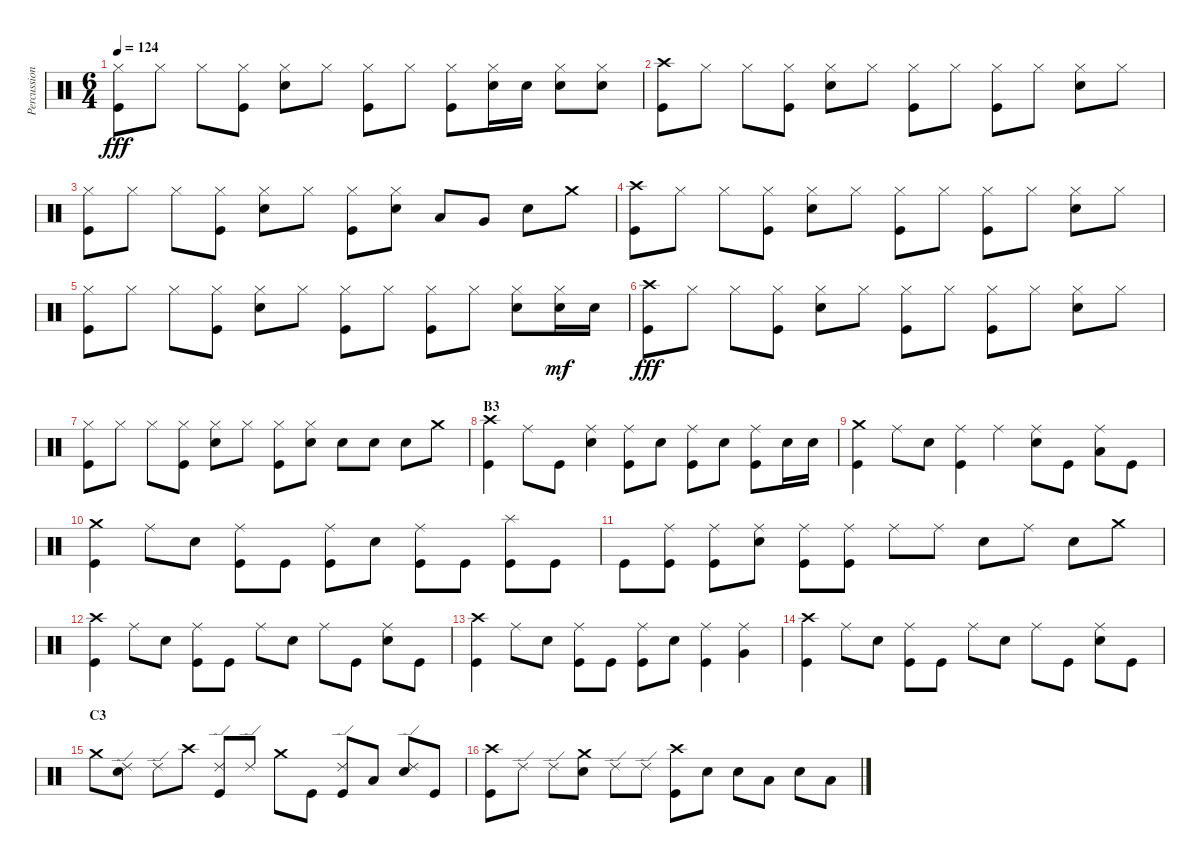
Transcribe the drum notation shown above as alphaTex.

\track ("Percussion" "Percussion") {instrument percussion}
\staff {score}
\articulation defaults
\ts (6 4)
\tempo 124
\clef neutral
\ks c
("Hi-Hat (closed)" "Kick (hit)").8{dy fff} "Hi-Hat (closed)".8 "Hi-Hat (closed)".8 ("Hi-Hat (closed)" "Kick (hit)").8 ("Hi-Hat (closed)" "Snare (hit) 2").8 "Hi-Hat (closed)".8 ("Hi-Hat (closed)" "Kick (hit)").8 "Hi-Hat (closed)".8 ("Hi-Hat (closed)" "Kick (hit)").8 ("Hi-Hat (closed)" "Snare (hit) 2").16 "Snare (hit) 2".16 ("Hi-Hat (closed)" "Snare (hit) 2").8 ("Hi-Hat (closed)" "Snare (hit) 2").8 |
("Crash high (hit)" "Kick (hit)").8 "Hi-Hat (closed)".8 "Hi-Hat (closed)".8 ("Hi-Hat (closed)" "Kick (hit)").8 ("Hi-Hat (closed)" "Snare (hit) 2").8 "Hi-Hat (closed)".8 ("Hi-Hat (closed)" "Kick (hit)").8 "Hi-Hat (closed)".8 ("Hi-Hat (closed)" "Kick (hit)").8 "Hi-Hat (closed)".8 ("Hi-Hat (closed)" "Snare (hit) 2").8 "Hi-Hat (closed)".8 |
("Hi-Hat (closed)" "Kick (hit)").8 "Hi-Hat (closed)".8 "Hi-Hat (closed)".8 ("Hi-Hat (closed)" "Kick (hit)").8 ("Hi-Hat (closed)" "Snare (hit) 2").8 "Hi-Hat (closed)".8 ("Hi-Hat (closed)" "Kick (hit)").8 ("Hi-Hat (closed)" "Snare (hit) 2").8 "Low Tom (hit)".8 "Very Low Tom (hit)".8 "Snare (hit) 2".8 "Crash medium (hit)".8 |
("Crash high (hit)" "Kick (hit)").8 "Hi-Hat (closed)".8 "Hi-Hat (closed)".8 ("Hi-Hat (closed)" "Kick (hit)").8 ("Hi-Hat (closed)" "Snare (hit) 2").8 "Hi-Hat (closed)".8 ("Hi-Hat (closed)" "Kick (hit)").8 "Hi-Hat (closed)".8 ("Hi-Hat (closed)" "Kick (hit)").8 "Hi-Hat (closed)".8 ("Hi-Hat (closed)" "Snare (hit) 2").8 "Hi-Hat (closed)".8 |
("Hi-Hat (closed)" "Kick (hit)").8 "Hi-Hat (closed)".8 "Hi-Hat (closed)".8 ("Hi-Hat (closed)" "Kick (hit)").8 ("Hi-Hat (closed)" "Snare (hit) 2").8 "Hi-Hat (closed)".8 ("Hi-Hat (closed)" "Kick (hit)").8 "Hi-Hat (closed)".8 ("Hi-Hat (closed)" "Kick (hit)").8 "Hi-Hat (closed)".8 ("Hi-Hat (closed)" "Snare (hit) 2").8 ("Hi-Hat (closed)" "Snare (hit) 2").16{dy mf} "Snare (hit) 2".16 |
("Crash high (hit)" "Kick (hit)").8{dy fff} "Hi-Hat (closed)".8 "Hi-Hat (closed)".8 ("Hi-Hat (closed)" "Kick (hit)").8 ("Hi-Hat (closed)" "Snare (hit) 2").8 "Hi-Hat (closed)".8 ("Hi-Hat (closed)" "Kick (hit)").8 "Hi-Hat (closed)".8 ("Hi-Hat (closed)" "Kick (hit)").8 "Hi-Hat (closed)".8 ("Hi-Hat (closed)" "Snare (hit) 2").8 "Hi-Hat (closed)".8 |
("Hi-Hat (closed)" "Kick (hit)").8 "Hi-Hat (closed)".8 "Hi-Hat (closed)".8 ("Hi-Hat (closed)" "Kick (hit)").8 ("Hi-Hat (closed)" "Snare (hit) 2").8 "Hi-Hat (closed)".8 ("Hi-Hat (closed)" "Kick (hit)").8 ("Hi-Hat (closed)" "Snare (hit) 2").8 "Snare (hit) 2".8 "Snare (hit) 2".8 "Snare (hit) 2".8 "Crash medium (hit)".8 |
\section ("" "B3")
("Crash high (hit)" "Kick (hit)").4 "Ride (middle)".8 "Kick (hit)".8 ("Ride (middle)" "Snare (hit) 2").4 ("Ride (middle)" "Kick (hit)").8 "Snare (hit) 2".8 ("Ride (middle)" "Kick (hit)").8 "Snare (hit) 2".8 ("Ride (middle)" "Kick (hit)").8 "Snare (hit) 2".16 "Snare (hit) 2".16 |
("Crash medium (hit)" "Kick (hit)").4 "Ride (middle)".8 "Snare (hit) 2".8 ("Ride (middle)" "Kick (hit)").4 "Ride (middle)".4 ("Ride (middle)" "Snare (hit) 2").8 "Kick (hit)".8 ("Ride (middle)" "Low Floor Tom (hit)").8 "Kick (hit)".8 |
("Crash medium (hit)" "Kick (hit)").4 "Ride (middle)".8 "Snare (hit) 2".8 ("Ride (middle)" "Kick (hit)").8 "Kick (hit)".8 ("Ride (middle)" "Kick (hit)").8 "Snare (hit) 2".8 ("Ride (middle)" "Kick (hit)").8 "Kick (hit)".8 ("Splash (hit)" "Kick (hit)").8 "Kick (hit)".8 |
"Kick (hit)".8 ("Ride (middle)" "Kick (hit)").8 ("Ride (middle)" "Kick (hit)").8 ("Ride (middle)" "Snare (hit) 2").8 ("Ride (middle)" "Kick (hit)").8 ("Ride (middle)" "Kick (hit)").8 "Ride (middle)".8 "Ride (middle)".8 "Snare (hit) 2".8 "Ride (middle)".8 "Snare (hit) 2".8 "Crash medium (hit)".8 |
("Crash high (hit)" "Kick (hit)").4 "Ride (middle)".8 "Snare (hit) 2".8 ("Ride (middle)" "Kick (hit)").8 "Kick (hit)".8 "Ride (middle)".8 "Snare (hit) 2".8 "Ride (middle)".8 "Kick (hit)".8 ("Ride (middle)" "Snare (hit) 2").8 "Kick (hit)".8 |
("Crash high (hit)" "Kick (hit)").4 "Ride (middle)".8 "Snare (hit) 2".8 ("Ride (middle)" "Kick (hit)").8 "Kick (hit)".8 ("Ride (middle)" "Kick (hit)").8 "Snare (hit) 2".8 ("Ride (middle)" "Kick (hit)").4 ("Ride (middle)" "Very Low Tom (hit)").4 |
("Crash high (hit)" "Kick (hit)").4 "Ride (middle)".8 "Snare (hit) 2".8 ("Ride (middle)" "Kick (hit)").8 "Kick (hit)".8 "Ride (middle)".8 "Snare (hit) 2".8 "Ride (middle)".8 "Kick (hit)".8 ("Ride (middle)" "Snare (hit) 2").8 "Kick (hit)".8 |
\section ("" "C3")
"Crash medium (hit)".8 ("Ride (edge) 2" "Snare (hit) 2").8 "Ride (edge) 2".8 "Crash high (hit)".8 ("Ride (edge) 2" "Kick (hit)").8 "Ride (edge) 2".8 "Crash medium (hit)".8 "Kick (hit)".8 ("Ride (edge) 2" "Kick (hit)").8 "Low Tom (hit)".8 ("Ride (edge) 2" "Snare (hit) 2").8 "Kick (hit)".8 |
("Crash high (hit)" "Kick (hit)").8 "Ride (edge) 2".8 "Ride (edge) 2".8 ("Crash medium (hit)" "Snare (hit) 2").8 "Ride (edge) 2".8 "Ride (edge) 2".8 ("Crash high (hit)" "Kick (hit)").8 "Snare (hit) 2".8 "Snare (hit) 2".8 "Low Tom (hit)".8 "Snare (hit) 2".8 "Low Tom (hit)".8
